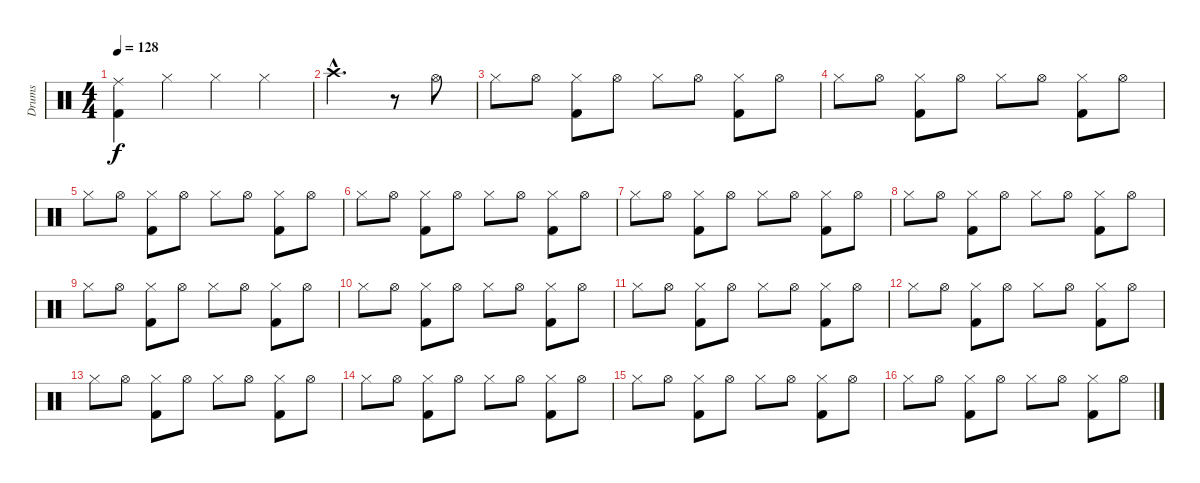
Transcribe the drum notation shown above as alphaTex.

\track ("Drums" "Drums") {instrument percussion}
\staff {score}
\articulation defaults
\ts (4 4)
\tempo 128
\clef neutral
\ks c
("Ride (middle)" "Kick (hit) 2").4{dy f} "Hi-Hat (closed)".4 "Hi-Hat (closed)".4 "Hi-Hat (closed)".4 |
"Crash high (hit)"{hac}.2{d} r.8 "Hi-Hat (open)".8 |
"Hi-Hat (closed)".8 "Hi-Hat (open)".8 ("Hi-Hat (closed)" "Kick (hit) 2").8 "Hi-Hat (open)".8 "Hi-Hat (closed)".8 "Hi-Hat (open)".8 ("Hi-Hat (closed)" "Kick (hit) 2").8 "Hi-Hat (open)".8 |
"Hi-Hat (closed)".8 "Hi-Hat (open)".8 ("Hi-Hat (closed)" "Kick (hit) 2").8 "Hi-Hat (open)".8 "Hi-Hat (closed)".8 "Hi-Hat (open)".8 ("Hi-Hat (closed)" "Kick (hit) 2").8 "Hi-Hat (open)".8 |
"Hi-Hat (closed)".8 "Hi-Hat (open)".8 ("Hi-Hat (closed)" "Kick (hit) 2").8 "Hi-Hat (open)".8 "Hi-Hat (closed)".8 "Hi-Hat (open)".8 ("Hi-Hat (closed)" "Kick (hit) 2").8 "Hi-Hat (open)".8 |
"Hi-Hat (closed)".8 "Hi-Hat (open)".8 ("Hi-Hat (closed)" "Kick (hit) 2").8 "Hi-Hat (open)".8 "Hi-Hat (closed)".8 "Hi-Hat (open)".8 ("Hi-Hat (closed)" "Kick (hit) 2").8 "Hi-Hat (open)".8 |
"Hi-Hat (closed)".8 "Hi-Hat (open)".8 ("Hi-Hat (closed)" "Kick (hit) 2").8 "Hi-Hat (open)".8 "Hi-Hat (closed)".8 "Hi-Hat (open)".8 ("Hi-Hat (closed)" "Kick (hit) 2").8 "Hi-Hat (open)".8 |
"Hi-Hat (closed)".8 "Hi-Hat (open)".8 ("Hi-Hat (closed)" "Kick (hit) 2").8 "Hi-Hat (open)".8 "Hi-Hat (closed)".8 "Hi-Hat (open)".8 ("Hi-Hat (closed)" "Kick (hit) 2").8 "Hi-Hat (open)".8 |
"Hi-Hat (closed)".8 "Hi-Hat (open)".8 ("Hi-Hat (closed)" "Kick (hit) 2").8 "Hi-Hat (open)".8 "Hi-Hat (closed)".8 "Hi-Hat (open)".8 ("Hi-Hat (closed)" "Kick (hit) 2").8 "Hi-Hat (open)".8 |
"Hi-Hat (closed)".8 "Hi-Hat (open)".8 ("Hi-Hat (closed)" "Kick (hit) 2").8 "Hi-Hat (open)".8 "Hi-Hat (closed)".8 "Hi-Hat (open)".8 ("Hi-Hat (closed)" "Kick (hit) 2").8 "Hi-Hat (open)".8 |
"Hi-Hat (closed)".8 "Hi-Hat (open)".8 ("Hi-Hat (closed)" "Kick (hit) 2").8 "Hi-Hat (open)".8 "Hi-Hat (closed)".8 "Hi-Hat (open)".8 ("Hi-Hat (closed)" "Kick (hit) 2").8 "Hi-Hat (open)".8 |
"Hi-Hat (closed)".8 "Hi-Hat (open)".8 ("Hi-Hat (closed)" "Kick (hit) 2").8 "Hi-Hat (open)".8 "Hi-Hat (closed)".8 "Hi-Hat (open)".8 ("Hi-Hat (closed)" "Kick (hit) 2").8 "Hi-Hat (open)".8 |
"Hi-Hat (closed)".8 "Hi-Hat (open)".8 ("Hi-Hat (closed)" "Kick (hit) 2").8 "Hi-Hat (open)".8 "Hi-Hat (closed)".8 "Hi-Hat (open)".8 ("Hi-Hat (closed)" "Kick (hit) 2").8 "Hi-Hat (open)".8 |
"Hi-Hat (closed)".8 "Hi-Hat (open)".8 ("Hi-Hat (closed)" "Kick (hit) 2").8 "Hi-Hat (open)".8 "Hi-Hat (closed)".8 "Hi-Hat (open)".8 ("Hi-Hat (closed)" "Kick (hit) 2").8 "Hi-Hat (open)".8 |
"Hi-Hat (closed)".8 "Hi-Hat (open)".8 ("Hi-Hat (closed)" "Kick (hit) 2").8 "Hi-Hat (open)".8 "Hi-Hat (closed)".8 "Hi-Hat (open)".8 ("Hi-Hat (closed)" "Kick (hit) 2").8 "Hi-Hat (open)".8 |
"Hi-Hat (closed)".8 "Hi-Hat (open)".8 ("Hi-Hat (closed)" "Kick (hit) 2").8 "Hi-Hat (open)".8 "Hi-Hat (closed)".8 "Hi-Hat (open)".8 ("Hi-Hat (closed)" "Kick (hit) 2").8 "Hi-Hat (open)".8
